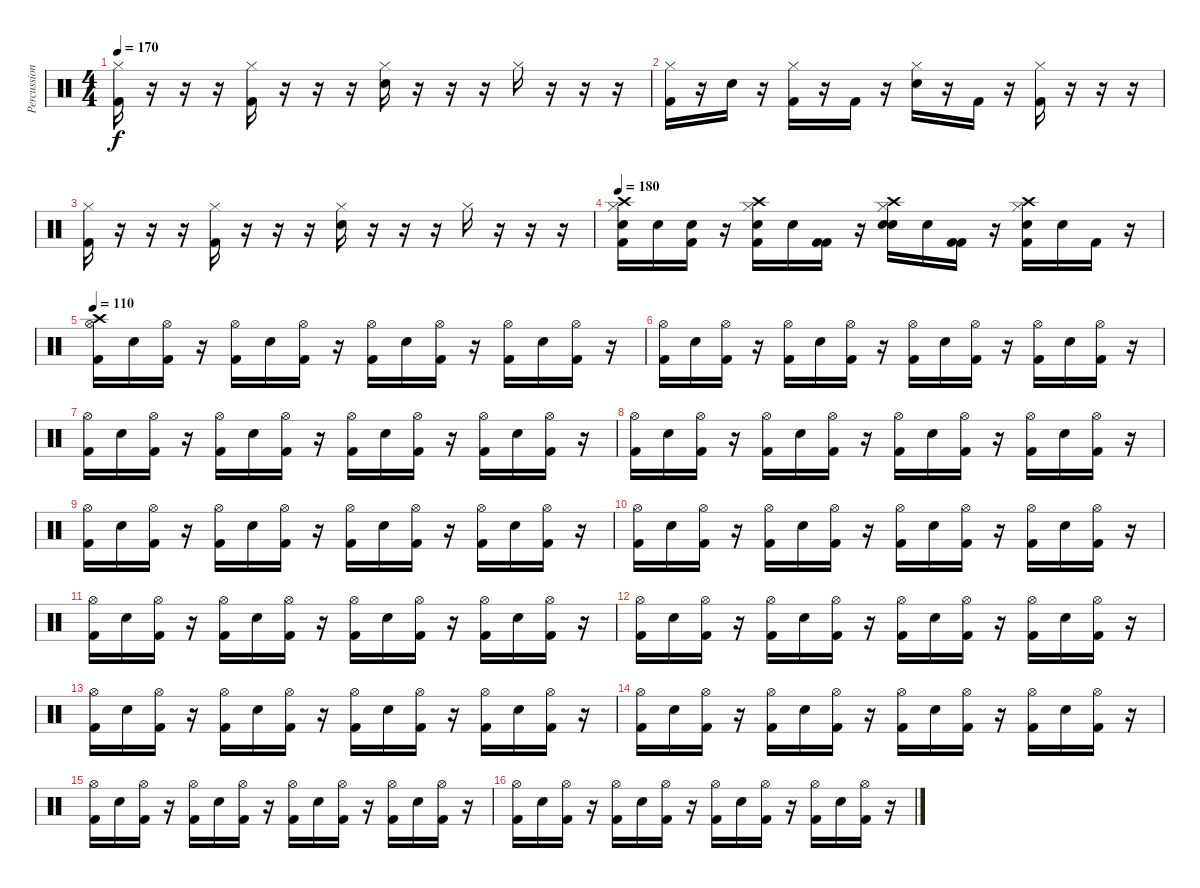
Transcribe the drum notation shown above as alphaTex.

\track ("Percussion" "Percussion") {instrument percussion}
\staff {score}
\articulation defaults
\ts (4 4)
\tempo 170
\clef neutral
\ks c
("Hi-Hat (closed)" "Kick (hit) 2").16{dy f} r.16 r.16 r.16 ("Hi-Hat (closed)" "Kick (hit) 2").16 r.16 r.16 r.16 ("Hi-Hat (closed)" "Snare (hit) 2").16 r.16 r.16 r.16 "Hi-Hat (closed)".16 r.16 r.16 r.16 |
("Hi-Hat (closed)" "Kick (hit) 2").16 r.16 "Snare (hit) 2".16 r.16 ("Hi-Hat (closed)" "Kick (hit) 2").16 r.16 "Kick (hit) 2".16 r.16 ("Hi-Hat (closed)" "Snare (hit) 2").16 r.16 "Kick (hit) 2".16 r.16 ("Hi-Hat (closed)" "Kick (hit) 2").16 r.16 r.16 r.16 |
("Hi-Hat (closed)" "Kick (hit) 2").16 r.16 r.16 r.16 ("Hi-Hat (closed)" "Kick (hit) 2").16 r.16 r.16 r.16 ("Hi-Hat (closed)" "Snare (hit) 2").16 r.16 r.16 r.16 "Hi-Hat (closed)".16 r.16 r.16 r.16 |
\tempo 180
("Hi-Hat (closed)" "Crash high (hit)" "Snare (hit) 2" "Kick (hit) 2").16 "Snare (hit) 2".16 ("Kick (hit) 2" "Snare (hit) 2").16 r.16 ("Hi-Hat (closed)" "Crash high (hit)" "Snare (hit) 2" "Kick (hit) 2").16 "Snare (hit) 2".16 ("Kick (hit) 2" "Kick (hit) 2").16 r.16 ("Hi-Hat (closed)" "Crash high (hit)" "Snare (hit) 2" "Snare (hit) 2").16 "Snare (hit) 2".16 ("Kick (hit) 2" "Kick (hit) 2").16 r.16 ("Hi-Hat (closed)" "Crash high (hit)" "Snare (hit) 2" "Kick (hit) 2").16 "Snare (hit) 2".16 "Kick (hit) 2".16 r.16 |
\tempo 110
("Hi-Hat (open)" "Crash high (hit)" "Kick (hit) 2").16 "Snare (hit) 2".16 ("Hi-Hat (open)" "Kick (hit) 2").16 r.16 ("Hi-Hat (open)" "Kick (hit) 2").16 "Snare (hit) 2".16 ("Hi-Hat (open)" "Kick (hit) 2").16 r.16 ("Hi-Hat (open)" "Kick (hit) 2").16 "Snare (hit) 2".16 ("Hi-Hat (open)" "Kick (hit) 2").16 r.16 ("Hi-Hat (open)" "Kick (hit) 2").16 "Snare (hit) 2".16 ("Hi-Hat (open)" "Kick (hit) 2").16 r.16 |
("Hi-Hat (open)" "Kick (hit) 2").16 "Snare (hit) 2".16 ("Hi-Hat (open)" "Kick (hit) 2").16 r.16 ("Hi-Hat (open)" "Kick (hit) 2").16 "Snare (hit) 2".16 ("Hi-Hat (open)" "Kick (hit) 2").16 r.16 ("Hi-Hat (open)" "Kick (hit) 2").16 "Snare (hit) 2".16 ("Hi-Hat (open)" "Kick (hit) 2").16 r.16 ("Hi-Hat (open)" "Kick (hit) 2").16 "Snare (hit) 2".16 ("Hi-Hat (open)" "Kick (hit) 2").16 r.16 |
("Hi-Hat (open)" "Kick (hit) 2").16 "Snare (hit) 2".16 ("Hi-Hat (open)" "Kick (hit) 2").16 r.16 ("Hi-Hat (open)" "Kick (hit) 2").16 "Snare (hit) 2".16 ("Hi-Hat (open)" "Kick (hit) 2").16 r.16 ("Hi-Hat (open)" "Kick (hit) 2").16 "Snare (hit) 2".16 ("Hi-Hat (open)" "Kick (hit) 2").16 r.16 ("Hi-Hat (open)" "Kick (hit) 2").16 "Snare (hit) 2".16 ("Hi-Hat (open)" "Kick (hit) 2").16 r.16 |
("Hi-Hat (open)" "Kick (hit) 2").16 "Snare (hit) 2".16 ("Hi-Hat (open)" "Kick (hit) 2").16 r.16 ("Hi-Hat (open)" "Kick (hit) 2").16 "Snare (hit) 2".16 ("Hi-Hat (open)" "Kick (hit) 2").16 r.16 ("Hi-Hat (open)" "Kick (hit) 2").16 "Snare (hit) 2".16 ("Hi-Hat (open)" "Kick (hit) 2").16 r.16 ("Hi-Hat (open)" "Kick (hit) 2").16 "Snare (hit) 2".16 ("Hi-Hat (open)" "Kick (hit) 2").16 r.16 |
("Hi-Hat (open)" "Kick (hit) 2").16 "Snare (hit) 2".16 ("Hi-Hat (open)" "Kick (hit) 2").16 r.16 ("Hi-Hat (open)" "Kick (hit) 2").16 "Snare (hit) 2".16 ("Hi-Hat (open)" "Kick (hit) 2").16 r.16 ("Hi-Hat (open)" "Kick (hit) 2").16 "Snare (hit) 2".16 ("Hi-Hat (open)" "Kick (hit) 2").16 r.16 ("Hi-Hat (open)" "Kick (hit) 2").16 "Snare (hit) 2".16 ("Hi-Hat (open)" "Kick (hit) 2").16 r.16 |
("Hi-Hat (open)" "Kick (hit) 2").16 "Snare (hit) 2".16 ("Hi-Hat (open)" "Kick (hit) 2").16 r.16 ("Hi-Hat (open)" "Kick (hit) 2").16 "Snare (hit) 2".16 ("Hi-Hat (open)" "Kick (hit) 2").16 r.16 ("Hi-Hat (open)" "Kick (hit) 2").16 "Snare (hit) 2".16 ("Hi-Hat (open)" "Kick (hit) 2").16 r.16 ("Hi-Hat (open)" "Kick (hit) 2").16 "Snare (hit) 2".16 ("Hi-Hat (open)" "Kick (hit) 2").16 r.16 |
("Hi-Hat (open)" "Kick (hit) 2").16 "Snare (hit) 2".16 ("Hi-Hat (open)" "Kick (hit) 2").16 r.16 ("Hi-Hat (open)" "Kick (hit) 2").16 "Snare (hit) 2".16 ("Hi-Hat (open)" "Kick (hit) 2").16 r.16 ("Hi-Hat (open)" "Kick (hit) 2").16 "Snare (hit) 2".16 ("Hi-Hat (open)" "Kick (hit) 2").16 r.16 ("Hi-Hat (open)" "Kick (hit) 2").16 "Snare (hit) 2".16 ("Hi-Hat (open)" "Kick (hit) 2").16 r.16 |
("Hi-Hat (open)" "Kick (hit) 2").16 "Snare (hit) 2".16 ("Hi-Hat (open)" "Kick (hit) 2").16 r.16 ("Hi-Hat (open)" "Kick (hit) 2").16 "Snare (hit) 2".16 ("Hi-Hat (open)" "Kick (hit) 2").16 r.16 ("Hi-Hat (open)" "Kick (hit) 2").16 "Snare (hit) 2".16 ("Hi-Hat (open)" "Kick (hit) 2").16 r.16 ("Hi-Hat (open)" "Kick (hit) 2").16 "Snare (hit) 2".16 ("Hi-Hat (open)" "Kick (hit) 2").16 r.16 |
("Hi-Hat (open)" "Kick (hit) 2").16 "Snare (hit) 2".16 ("Hi-Hat (open)" "Kick (hit) 2").16 r.16 ("Hi-Hat (open)" "Kick (hit) 2").16 "Snare (hit) 2".16 ("Hi-Hat (open)" "Kick (hit) 2").16 r.16 ("Hi-Hat (open)" "Kick (hit) 2").16 "Snare (hit) 2".16 ("Hi-Hat (open)" "Kick (hit) 2").16 r.16 ("Hi-Hat (open)" "Kick (hit) 2").16 "Snare (hit) 2".16 ("Hi-Hat (open)" "Kick (hit) 2").16 r.16 |
("Hi-Hat (open)" "Kick (hit) 2").16 "Snare (hit) 2".16 ("Hi-Hat (open)" "Kick (hit) 2").16 r.16 ("Hi-Hat (open)" "Kick (hit) 2").16 "Snare (hit) 2".16 ("Hi-Hat (open)" "Kick (hit) 2").16 r.16 ("Hi-Hat (open)" "Kick (hit) 2").16 "Snare (hit) 2".16 ("Hi-Hat (open)" "Kick (hit) 2").16 r.16 ("Hi-Hat (open)" "Kick (hit) 2").16 "Snare (hit) 2".16 ("Hi-Hat (open)" "Kick (hit) 2").16 r.16 |
("Hi-Hat (open)" "Kick (hit) 2").16 "Snare (hit) 2".16 ("Hi-Hat (open)" "Kick (hit) 2").16 r.16 ("Hi-Hat (open)" "Kick (hit) 2").16 "Snare (hit) 2".16 ("Hi-Hat (open)" "Kick (hit) 2").16 r.16 ("Hi-Hat (open)" "Kick (hit) 2").16 "Snare (hit) 2".16 ("Hi-Hat (open)" "Kick (hit) 2").16 r.16 ("Hi-Hat (open)" "Kick (hit) 2").16 "Snare (hit) 2".16 ("Hi-Hat (open)" "Kick (hit) 2").16 r.16 |
("Hi-Hat (open)" "Kick (hit) 2").16 "Snare (hit) 2".16 ("Hi-Hat (open)" "Kick (hit) 2").16 r.16 ("Hi-Hat (open)" "Kick (hit) 2").16 "Snare (hit) 2".16 ("Hi-Hat (open)" "Kick (hit) 2").16 r.16 ("Hi-Hat (open)" "Kick (hit) 2").16 "Snare (hit) 2".16 ("Hi-Hat (open)" "Kick (hit) 2").16 r.16 ("Hi-Hat (open)" "Kick (hit) 2").16 "Snare (hit) 2".16 ("Hi-Hat (open)" "Kick (hit) 2").16 r.16
